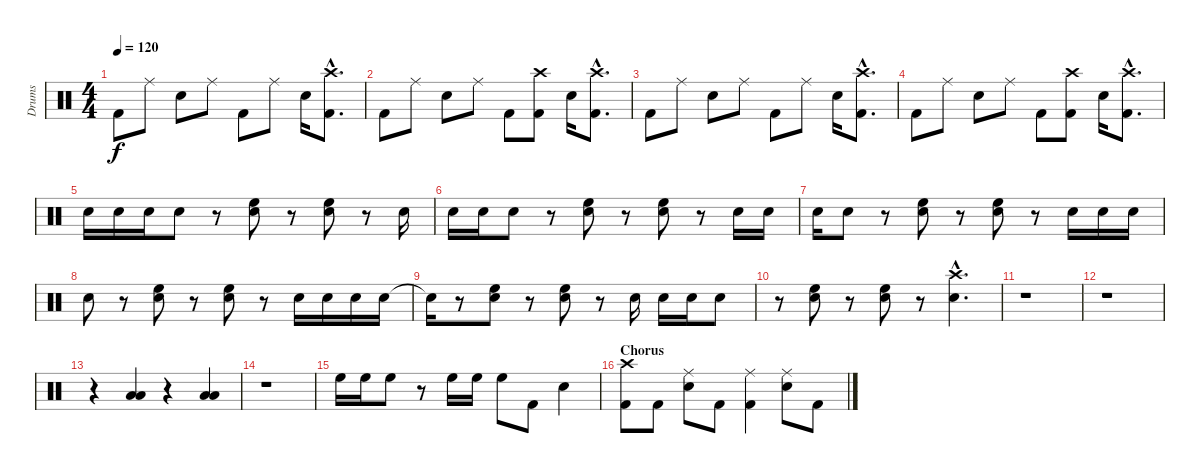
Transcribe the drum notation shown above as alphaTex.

\track ("Drums" "Drums") {instrument percussion}
\staff {score}
\articulation defaults
\ts (4 4)
\tempo 120
\clef neutral
\ks c "Kick (hit) 2".8{dy f} "Ride (middle)".8 "Snare (hit) 2".8 "Ride (middle)".8 "Kick (hit) 2".8 "Ride (middle)".8 "Snare (hit) 2".16
("Crash high (hit)"{hac} "Kick (hit) 2"{hac}).8{d} |
"Kick (hit) 2".8 "Ride (middle)".8 "Snare (hit) 2".8 "Ride (middle)".8 "Kick (hit) 2".8 ("Crash high (hit)" "Kick (hit) 2").8 "Snare (hit) 2".16 ("Crash high (hit)"{hac} "Kick (hit) 2"{hac}).8{d} |
"Kick (hit) 2".8 "Ride (middle)".8 "Snare (hit) 2".8 "Ride (middle)".8 "Kick (hit) 2".8 "Ride (middle)".8 "Snare (hit) 2".16 ("Crash high (hit)"{hac} "Kick (hit) 2"{hac}).8{d} |
"Kick (hit) 2".8 "Ride (middle)".8 "Snare (hit) 2".8 "Ride (middle)".8 "Kick (hit) 2".8 ("Crash high (hit)" "Kick (hit) 2").8 "Snare (hit) 2".16 ("Crash high (hit)"{hac} "Kick (hit) 2"{hac}).8{d} |
"Snare (hit) 2".16 "Snare (hit) 2".16 "Snare (hit) 2".16 "Snare (hit) 2".8 r.8 ("Snare (hit) 2" "High Floor Tom (hit)").8 r.8 ("Snare (hit) 2" "High Floor Tom (hit)").8 r.8 "Snare (hit) 2".16 |
"Snare (hit) 2".16 "Snare (hit) 2".16 "Snare (hit) 2".8 r.8 ("Snare (hit) 2" "High Floor Tom (hit)").8 r.8 ("Snare (hit) 2" "High Floor Tom (hit)").8 r.8 "Snare (hit) 2".16 "Snare (hit) 2".16 |
"Snare (hit) 2".16 "Snare (hit) 2".8 r.8 ("Snare (hit) 2" "High Floor Tom (hit)").8 r.8 ("Snare (hit) 2" "High Floor Tom (hit)").8 r.8 "Snare (hit) 2".16 "Snare (hit) 2".16 "Snare (hit) 2".16 |
"Snare (hit) 2".8 r.8 ("Snare (hit) 2" "High Floor Tom (hit)").8 r.8 ("Snare (hit) 2" "High Floor Tom (hit)").8 r.8 "Snare (hit) 2".16 "Snare (hit) 2".16 "Snare (hit) 2".16 "Snare (hit) 2".16 |
"Snare (hit) 2"{t}.16 r.8 ("Snare (hit) 2" "High Floor Tom (hit)").8 r.8 ("Snare (hit) 2" "High Floor Tom (hit)").8 r.8 "Snare (hit) 2".16 "Snare (hit) 2".16 "Snare (hit) 2".16 "Snare (hit) 2".8 |
r.8 ("Snare (hit) 2" "High Floor Tom (hit)").8 r.8 ("Snare (hit) 2" "High Floor Tom (hit)").8 r.8 ("Crash high (hit)"{hac} "Snare (hit) 2"{hac}).4{d} |
r.1 |
r.1 |
r.4 ("Low Floor Tom (hit)" "Low Floor Tom (hit)").4 r.4 ("Low Floor Tom (hit)" "Low Floor Tom (hit)").4 |
r.1 |
"High Floor Tom (hit)".16 "High Floor Tom (hit)".16 "High Floor Tom (hit)".8 r.8 "High Floor Tom (hit)".16 "High Floor Tom (hit)".16 "High Floor Tom (hit)".8 "Kick (hit) 2".8 "Snare (hit) 2".4 |
\section ("" "Chorus")
("Crash high (hit)" "Kick (hit) 2").8 "Kick (hit) 2".8 ("Ride (middle)" "Snare (hit) 2").8 "Kick (hit) 2".8 ("Ride (middle)" "Kick (hit) 2").4 ("Ride (middle)" "Snare (hit) 2").8 "Kick (hit) 2".8
